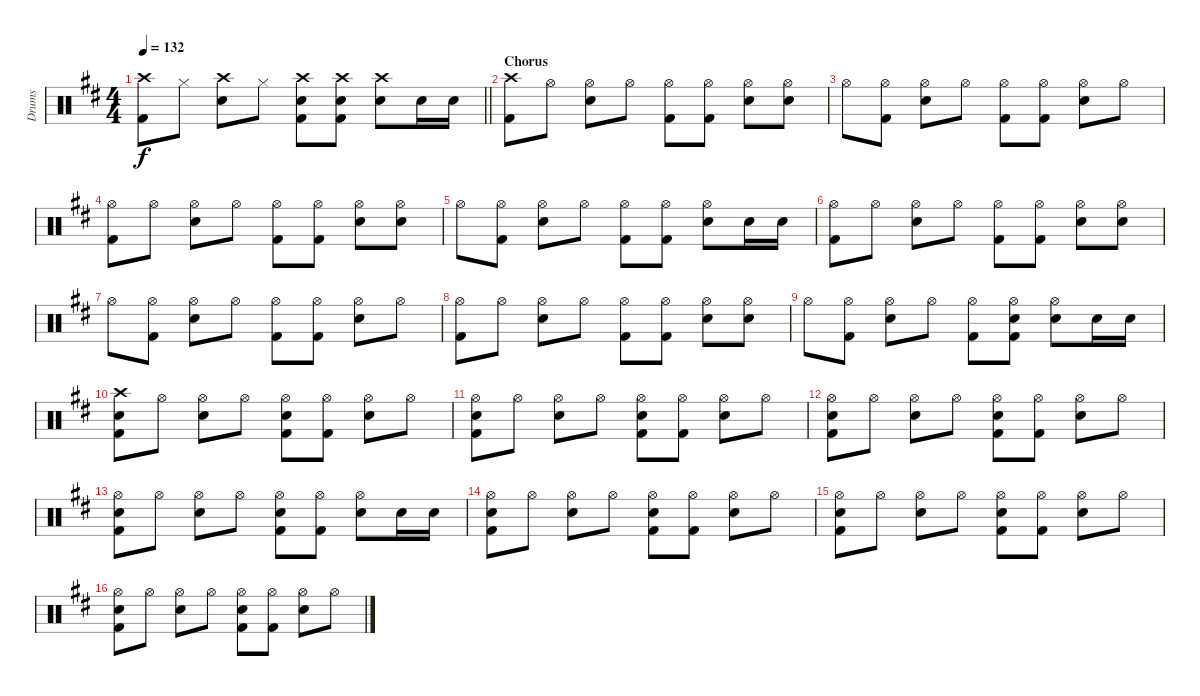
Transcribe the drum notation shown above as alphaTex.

\track ("Drums" "Drums") {instrument percussion}
\staff {score}
\articulation defaults
\ts (4 4)
\tempo 132
\clef neutral
\barLineRight lightlight
\ks d
("Crash high (hit)" "Kick (hit) 2").8{dy f} "Hi-Hat (closed)".8 ("Crash high (hit)" "Electric Snare (hit)").8 "Hi-Hat (closed)".8 ("Crash high (hit)" "Electric Snare (hit)" "Kick (hit) 2").8 ("Crash high (hit)" "Electric Snare (hit)" "Kick (hit) 2").8 ("Crash high (hit)" "Electric Snare (hit)").8 "Electric Snare (hit)".16 "Electric Snare (hit)".16 |
\section ("" "Chorus")
("Crash high (hit)" "Kick (hit) 2").8 "Hi-Hat (open)".8 ("Hi-Hat (open)" "Electric Snare (hit)").8 "Hi-Hat (open)".8 ("Hi-Hat (open)" "Kick (hit) 2").8 ("Hi-Hat (open)" "Kick (hit) 2").8 ("Hi-Hat (open)" "Electric Snare (hit)").8 ("Hi-Hat (open)" "Electric Snare (hit)").8 |
"Hi-Hat (open)".8 ("Hi-Hat (open)" "Kick (hit) 2").8 ("Hi-Hat (open)" "Electric Snare (hit)").8 "Hi-Hat (open)".8 ("Hi-Hat (open)" "Kick (hit) 2").8 ("Hi-Hat (open)" "Kick (hit) 2").8 ("Hi-Hat (open)" "Electric Snare (hit)").8 "Hi-Hat (open)".8 |
("Hi-Hat (open)" "Kick (hit) 2").8 "Hi-Hat (open)".8 ("Hi-Hat (open)" "Electric Snare (hit)").8 "Hi-Hat (open)".8 ("Hi-Hat (open)" "Kick (hit) 2").8 ("Hi-Hat (open)" "Kick (hit) 2").8 ("Hi-Hat (open)" "Electric Snare (hit)").8 ("Hi-Hat (open)" "Electric Snare (hit)").8 |
"Hi-Hat (open)".8 ("Hi-Hat (open)" "Kick (hit) 2").8 ("Hi-Hat (open)" "Electric Snare (hit)").8 "Hi-Hat (open)".8 ("Hi-Hat (open)" "Kick (hit) 2").8 ("Hi-Hat (open)" "Kick (hit) 2").8 ("Hi-Hat (open)" "Electric Snare (hit)").8 "Electric Snare (hit)".16 "Electric Snare (hit)".16 |
("Hi-Hat (open)" "Kick (hit) 2").8 "Hi-Hat (open)".8 ("Hi-Hat (open)" "Electric Snare (hit)").8 "Hi-Hat (open)".8 ("Hi-Hat (open)" "Kick (hit) 2").8 ("Hi-Hat (open)" "Kick (hit) 2").8 ("Hi-Hat (open)" "Electric Snare (hit)").8 ("Hi-Hat (open)" "Electric Snare (hit)").8 |
"Hi-Hat (open)".8 ("Hi-Hat (open)" "Kick (hit) 2").8 ("Hi-Hat (open)" "Electric Snare (hit)").8 "Hi-Hat (open)".8 ("Hi-Hat (open)" "Kick (hit) 2").8 ("Hi-Hat (open)" "Kick (hit) 2").8 ("Hi-Hat (open)" "Electric Snare (hit)").8 "Hi-Hat (open)".8 |
("Hi-Hat (open)" "Kick (hit) 2").8 "Hi-Hat (open)".8 ("Hi-Hat (open)" "Electric Snare (hit)").8 "Hi-Hat (open)".8 ("Hi-Hat (open)" "Kick (hit) 2").8 ("Hi-Hat (open)" "Kick (hit) 2").8 ("Hi-Hat (open)" "Electric Snare (hit)").8 ("Hi-Hat (open)" "Electric Snare (hit)").8 |
"Hi-Hat (open)".8 ("Hi-Hat (open)" "Kick (hit) 2").8 ("Hi-Hat (open)" "Electric Snare (hit)").8 "Hi-Hat (open)".8 ("Hi-Hat (open)" "Kick (hit) 2").8 ("Hi-Hat (open)" "Electric Snare (hit)" "Kick (hit) 2").8 ("Hi-Hat (open)" "Electric Snare (hit)").8 "Electric Snare (hit)".16 "Electric Snare (hit)".16 |
("Crash high (hit)" "Electric Snare (hit)" "Kick (hit) 2").8 "Hi-Hat (open)".8 ("Hi-Hat (open)" "Electric Snare (hit)").8 "Hi-Hat (open)".8 ("Hi-Hat (open)" "Electric Snare (hit)" "Kick (hit) 2").8 ("Hi-Hat (open)" "Kick (hit) 2").8 ("Hi-Hat (open)" "Electric Snare (hit)").8 "Hi-Hat (open)".8 |
("Hi-Hat (open)" "Electric Snare (hit)" "Kick (hit) 2").8 "Hi-Hat (open)".8 ("Hi-Hat (open)" "Electric Snare (hit)").8 "Hi-Hat (open)".8 ("Hi-Hat (open)" "Electric Snare (hit)" "Kick (hit) 2").8 ("Hi-Hat (open)" "Kick (hit) 2").8 ("Hi-Hat (open)" "Electric Snare (hit)").8 "Hi-Hat (open)".8 |
("Hi-Hat (open)" "Electric Snare (hit)" "Kick (hit) 2").8 "Hi-Hat (open)".8 ("Hi-Hat (open)" "Electric Snare (hit)").8 "Hi-Hat (open)".8 ("Hi-Hat (open)" "Electric Snare (hit)" "Kick (hit) 2").8 ("Hi-Hat (open)" "Kick (hit) 2").8 ("Hi-Hat (open)" "Electric Snare (hit)").8 "Hi-Hat (open)".8 |
("Hi-Hat (open)" "Electric Snare (hit)" "Kick (hit) 2").8 "Hi-Hat (open)".8 ("Hi-Hat (open)" "Electric Snare (hit)").8 "Hi-Hat (open)".8 ("Hi-Hat (open)" "Electric Snare (hit)" "Kick (hit) 2").8 ("Hi-Hat (open)" "Kick (hit) 2").8 ("Hi-Hat (open)" "Electric Snare (hit)").8 "Electric Snare (hit)".16 "Electric Snare (hit)".16 |
("Hi-Hat (open)" "Electric Snare (hit)" "Kick (hit) 2").8 "Hi-Hat (open)".8 ("Hi-Hat (open)" "Electric Snare (hit)").8 "Hi-Hat (open)".8 ("Hi-Hat (open)" "Electric Snare (hit)" "Kick (hit) 2").8 ("Hi-Hat (open)" "Kick (hit) 2").8 ("Hi-Hat (open)" "Electric Snare (hit)").8 "Hi-Hat (open)".8 |
("Hi-Hat (open)" "Electric Snare (hit)" "Kick (hit) 2").8 "Hi-Hat (open)".8 ("Hi-Hat (open)" "Electric Snare (hit)").8 "Hi-Hat (open)".8 ("Hi-Hat (open)" "Electric Snare (hit)" "Kick (hit) 2").8 ("Hi-Hat (open)" "Kick (hit) 2").8 ("Hi-Hat (open)" "Electric Snare (hit)").8 "Hi-Hat (open)".8 |
("Hi-Hat (open)" "Electric Snare (hit)" "Kick (hit) 2").8 "Hi-Hat (open)".8 ("Hi-Hat (open)" "Electric Snare (hit)").8 "Hi-Hat (open)".8 ("Hi-Hat (open)" "Electric Snare (hit)" "Kick (hit) 2").8 ("Hi-Hat (open)" "Kick (hit) 2").8 ("Hi-Hat (open)" "Electric Snare (hit)").8 "Hi-Hat (open)".8
